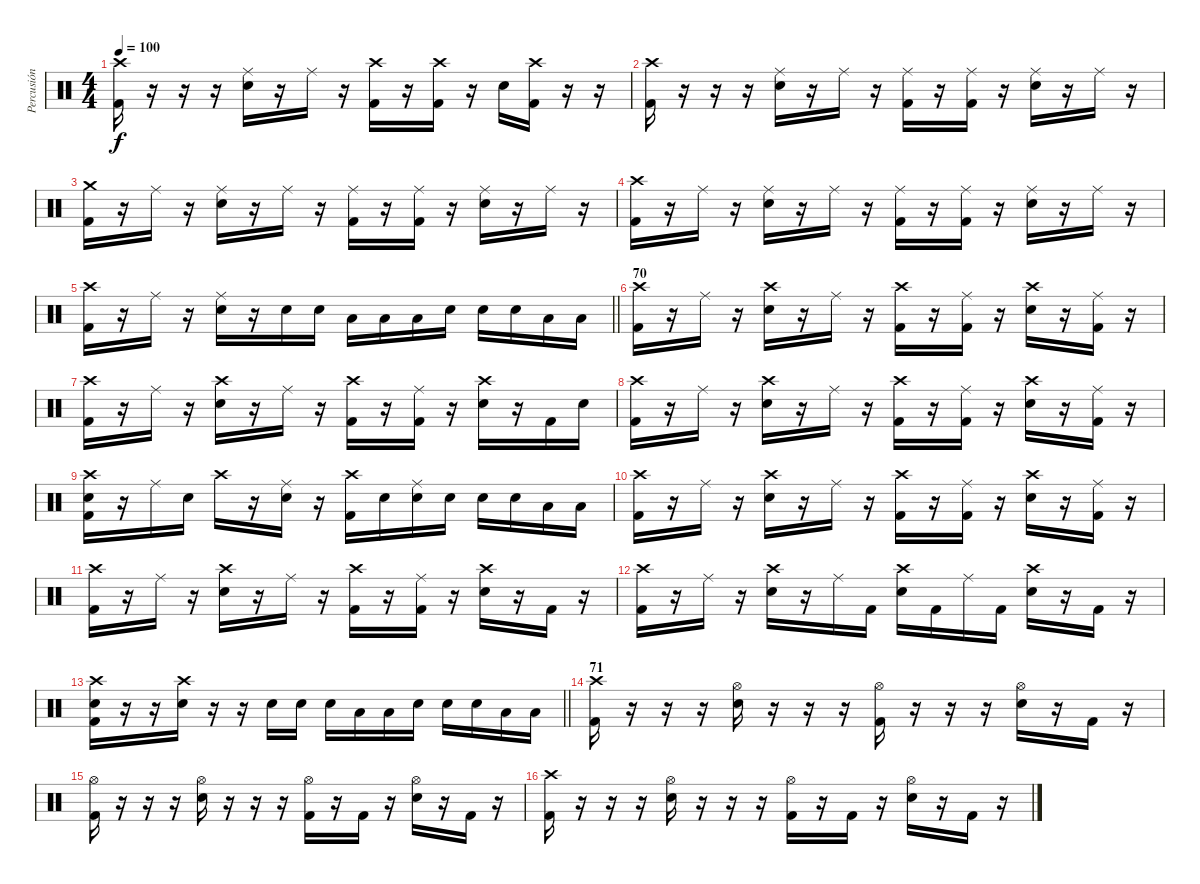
\track ("Percusión" "Percusión") {instrument percussion}
\staff {score}
\articulation defaults
\ts (4 4)
\tempo 100
\clef neutral
\ks c
("Crash high (hit)" "Kick (hit) 2").16{dy f} r.16 r.16 r.16 ("Ride (middle)" "Electric Snare (hit)").16 r.16 "Ride (middle)".16 r.16 ("Crash high (hit)" "Kick (hit) 2").16 r.16 ("Crash high (hit)" "Kick (hit) 2").16 r.16 "Electric Snare (hit)".16 ("Crash high (hit)" "Kick (hit) 2").16 r.16 r.16 |
("Crash high (hit)" "Kick (hit) 2").16 r.16 r.16 r.16 ("Ride (middle)" "Electric Snare (hit)").16 r.16 "Ride (middle)".16 r.16 ("Ride (middle)" "Kick (hit) 2").16 r.16 ("Ride (middle)" "Kick (hit) 2").16 r.16 ("Ride (middle)" "Electric Snare (hit)").16 r.16 "Ride (middle)".16 r.16 |
("Crash medium (hit)" "Kick (hit) 2").16 r.16 "Ride (middle)".16 r.16 ("Ride (middle)" "Electric Snare (hit)").16 r.16 "Ride (middle)".16 r.16 ("Ride (middle)" "Kick (hit) 2").16 r.16 ("Ride (middle)" "Kick (hit) 2").16 r.16 ("Ride (middle)" "Electric Snare (hit)").16 r.16 "Ride (middle)".16 r.16 |
("Crash high (hit)" "Kick (hit) 2").16 r.16 "Ride (middle)".16 r.16 ("Ride (middle)" "Electric Snare (hit)").16 r.16 "Ride (middle)".16 r.16 ("Ride (middle)" "Kick (hit) 2").16 r.16 ("Ride (middle)" "Kick (hit) 2").16 r.16 ("Ride (middle)" "Electric Snare (hit)").16 r.16 "Ride (middle)".16 r.16 |
\barLineRight lightlight
("Crash high (hit)" "Kick (hit) 2").16 r.16 "Ride (middle)".16 r.16 ("Ride (middle)" "Electric Snare (hit)").16 r.16 "Electric Snare (hit)".16 "Electric Snare (hit)".16 "Low Tom (hit)".16 "Low Tom (hit)".16 "Low Tom (hit)".16 "Electric Snare (hit)".16 "Electric Snare (hit)".16 "Electric Snare (hit)".16 "Low Tom (hit)".16 "Low Tom (hit)".16 |
\section ("" "70")
("Crash high (hit)" "Kick (hit) 2").16 r.16 "Ride (middle)".16 r.16 ("Crash high (hit)" "Electric Snare (hit)").16 r.16 "Ride (middle)".16 r.16 ("Crash high (hit)" "Kick (hit) 2").16 r.16 ("Ride (middle)" "Kick (hit) 2").16 r.16 ("Crash high (hit)" "Electric Snare (hit)").16 r.16 ("Ride (middle)" "Kick (hit) 2").16 r.16 |
("Crash high (hit)" "Kick (hit) 2").16 r.16 "Ride (middle)".16 r.16 ("Crash high (hit)" "Electric Snare (hit)").16 r.16 "Ride (middle)".16 r.16 ("Crash high (hit)" "Kick (hit) 2").16 r.16 ("Ride (middle)" "Kick (hit) 2").16 r.16 ("Crash high (hit)" "Electric Snare (hit)").16 r.16 "Kick (hit) 2".16 "Electric Snare (hit)".16 |
("Crash high (hit)" "Kick (hit) 2").16 r.16 "Ride (middle)".16 r.16 ("Crash high (hit)" "Electric Snare (hit)").16 r.16 "Ride (middle)".16 r.16 ("Crash high (hit)" "Kick (hit) 2").16 r.16 ("Ride (middle)" "Kick (hit) 2").16 r.16 ("Crash high (hit)" "Electric Snare (hit)").16 r.16 ("Ride (middle)" "Kick (hit) 2").16 r.16 |
("Crash high (hit)" "Electric Snare (hit)" "Kick (hit) 2").16 r.16 "Ride (middle)".16 "Electric Snare (hit)".16 "Crash high (hit)".16 r.16 ("Ride (middle)" "Electric Snare (hit)").16 r.16 ("Crash high (hit)" "Kick (hit) 2").16 "Electric Snare (hit)".16 ("Ride (middle)" "Electric Snare (hit)").16 "Electric Snare (hit)".16 "Electric Snare (hit)".16 "Electric Snare (hit)".16 "Low Tom (hit)".16 "Low Tom (hit)".16 |
("Crash high (hit)" "Kick (hit) 2").16 r.16 "Ride (middle)".16 r.16 ("Crash high (hit)" "Electric Snare (hit)").16 r.16 "Ride (middle)".16 r.16 ("Crash high (hit)" "Kick (hit) 2").16 r.16 ("Ride (middle)" "Kick (hit) 2").16 r.16 ("Crash high (hit)" "Electric Snare (hit)").16 r.16 ("Ride (middle)" "Kick (hit) 2").16 r.16 |
("Crash high (hit)" "Kick (hit) 2").16 r.16 "Ride (middle)".16 r.16 ("Crash high (hit)" "Electric Snare (hit)").16 r.16 "Ride (middle)".16 r.16 ("Crash high (hit)" "Kick (hit) 2").16 r.16 ("Ride (middle)" "Kick (hit) 2").16 r.16 ("Crash high (hit)" "Electric Snare (hit)").16 r.16 "Kick (hit) 2".16 r.16 |
("Crash high (hit)" "Kick (hit) 2").16 r.16 "Ride (middle)".16 r.16 ("Crash high (hit)" "Electric Snare (hit)").16 r.16 "Ride (middle)".16 "Kick (hit) 2".16 ("Crash high (hit)" "Electric Snare (hit)").16 "Kick (hit) 2".16 "Ride (middle)".16 "Kick (hit) 2".16 ("Crash high (hit)" "Electric Snare (hit)").16 r.16 "Kick (hit) 2".16 r.16 |
\barLineRight lightlight
("Crash high (hit)" "Electric Snare (hit)" "Kick (hit) 2").16 r.16 r.16 ("Crash high (hit)" "Electric Snare (hit)").16 r.16 r.16 "Electric Snare (hit)".16 "Electric Snare (hit)".16 "Electric Snare (hit)".16 "Low Tom (hit)".16 "Low Tom (hit)".16 "Electric Snare (hit)".16 "Electric Snare (hit)".16 "Electric Snare (hit)".16 "Low Tom (hit)".16 "Low Tom (hit)".16 |
\section ("" "71")
("Crash high (hit)" "Kick (hit) 2").16 r.16 r.16 r.16 ("Hi-Hat (open)" "Electric Snare (hit)").16 r.16 r.16 r.16 ("Hi-Hat (open)" "Kick (hit) 2").16 r.16 r.16 r.16 ("Hi-Hat (open)" "Electric Snare (hit)").16 r.16 "Kick (hit) 2".16 r.16 |
("Hi-Hat (open)" "Kick (hit) 2").16 r.16 r.16 r.16 ("Hi-Hat (open)" "Electric Snare (hit)").16 r.16 r.16 r.16 ("Hi-Hat (open)" "Kick (hit) 2").16 r.16 "Kick (hit) 2".16 r.16 ("Hi-Hat (open)" "Electric Snare (hit)").16 r.16 "Kick (hit) 2".16 r.16 |
("Crash high (hit)" "Kick (hit) 2").16 r.16 r.16 r.16 ("Hi-Hat (open)" "Electric Snare (hit)").16 r.16 r.16 r.16 ("Hi-Hat (open)" "Kick (hit) 2").16 r.16 "Kick (hit) 2".16 r.16 ("Hi-Hat (open)" "Electric Snare (hit)").16 r.16 "Kick (hit) 2".16 r.16
